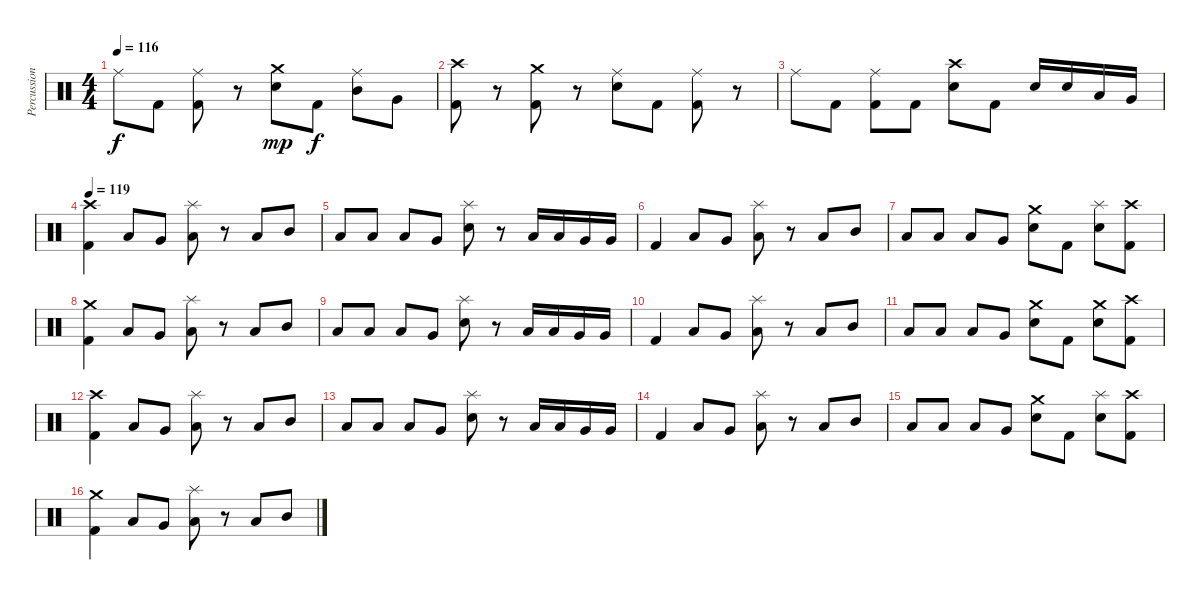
\track ("Percussion" "Percussion") {instrument percussion}
\staff {score}
\articulation defaults
\ts (4 4)
\tempo 116
\clef neutral
\ks c "Ride (middle)".8{dy f} "Kick (hit) 2".8
("Ride (middle)" "Kick (hit) 2").8 r.8 ("Crash medium (hit)" "Snare (hit) 2").8{dy mp} "Kick (hit) 2".8{dy f} ("Ride (middle)" "Mid Tom (hit)").8 "Very Low Tom (hit)".8 |
("Crash high (hit)" "Kick (hit) 2").8 r.8 ("Crash medium (hit)" "Kick (hit) 2").8 r.8 ("Ride (middle)" "Snare (hit) 2").8 "Kick (hit) 2".8 ("Ride (middle)" "Kick (hit) 2").8 r.8 |
"Ride (middle)".8 "Kick (hit) 2".8 ("Ride (middle)" "Kick (hit) 2").8 "Kick (hit) 2".8 ("Crash high (hit)" "Snare (hit) 2").8 "Kick (hit) 2".8 "Snare (hit) 2".16 "Snare (hit) 2".16 "Low Tom (hit)".16 "Very Low Tom (hit)".16 |
\tempo 119
("Crash high (hit)" "Kick (hit) 2").4 "Low Tom (hit)".8 "Very Low Tom (hit)".8 ("Splash (hit)" "Low Floor Tom (hit)").8 r.8 "Low Floor Tom (hit)".8 "Mid Tom (hit)".8 |
"Low Floor Tom (hit)".8 "Low Tom (hit)".8 "Low Floor Tom (hit)".8 "Very Low Tom (hit)".8 ("Splash (hit)" "Snare (hit) 2").8 r.8 "Low Tom (hit)".16 "Low Tom (hit)".16 "Very Low Tom (hit)".16 "Very Low Tom (hit)".16 |
"Kick (hit) 2".4 "Low Tom (hit)".8 "Very Low Tom (hit)".8 ("Splash (hit)" "Low Floor Tom (hit)").8 r.8 "Low Floor Tom (hit)".8 "Mid Tom (hit)".8 |
"Low Floor Tom (hit)".8 "Low Tom (hit)".8 "Low Floor Tom (hit)".8 "Very Low Tom (hit)".8 ("Crash medium (hit)" "Snare (hit) 2").8 "Kick (hit) 2".8 ("Splash (hit)" "Snare (hit) 2").8 ("Crash high (hit)" "Kick (hit) 2").8 |
("Crash medium (hit)" "Kick (hit) 2").4 "Low Tom (hit)".8 "Very Low Tom (hit)".8 ("Splash (hit)" "Low Floor Tom (hit)").8 r.8 "Low Floor Tom (hit)".8 "Mid Tom (hit)".8 |
"Low Floor Tom (hit)".8 "Low Tom (hit)".8 "Low Floor Tom (hit)".8 "Very Low Tom (hit)".8 ("Splash (hit)" "Snare (hit) 2").8 r.8 "Low Tom (hit)".16 "Low Tom (hit)".16 "Very Low Tom (hit)".16 "Very Low Tom (hit)".16 |
"Kick (hit) 2".4 "Low Tom (hit)".8 "Very Low Tom (hit)".8 ("Splash (hit)" "Low Floor Tom (hit)").8 r.8 "Low Floor Tom (hit)".8 "Mid Tom (hit)".8 |
"Low Floor Tom (hit)".8 "Low Tom (hit)".8 "Low Floor Tom (hit)".8 "Very Low Tom (hit)".8 ("Crash medium (hit)" "Snare (hit) 2").8 "Kick (hit) 2".8 ("Crash medium (hit)" "Snare (hit) 2").8 ("Crash high (hit)" "Kick (hit) 2").8 |
("Crash high (hit)" "Kick (hit) 2").4 "Low Tom (hit)".8 "Very Low Tom (hit)".8 ("Splash (hit)" "Low Floor Tom (hit)").8 r.8 "Low Floor Tom (hit)".8 "Mid Tom (hit)".8 |
"Low Floor Tom (hit)".8 "Low Tom (hit)".8 "Low Floor Tom (hit)".8 "Very Low Tom (hit)".8 ("Splash (hit)" "Snare (hit) 2").8 r.8 "Low Tom (hit)".16 "Low Tom (hit)".16 "Very Low Tom (hit)".16 "Very Low Tom (hit)".16 |
"Kick (hit) 2".4 "Low Tom (hit)".8 "Very Low Tom (hit)".8 ("Splash (hit)" "Low Floor Tom (hit)").8 r.8 "Low Floor Tom (hit)".8 "Mid Tom (hit)".8 |
"Low Floor Tom (hit)".8 "Low Tom (hit)".8 "Low Floor Tom (hit)".8 "Very Low Tom (hit)".8 ("Crash medium (hit)" "Snare (hit) 2").8 "Kick (hit) 2".8 ("Splash (hit)" "Snare (hit) 2").8 ("Crash high (hit)" "Kick (hit) 2").8 |
("Crash medium (hit)" "Kick (hit) 2").4 "Low Tom (hit)".8 "Very Low Tom (hit)".8 ("Splash (hit)" "Low Floor Tom (hit)").8 r.8 "Low Floor Tom (hit)".8 "Mid Tom (hit)".8
